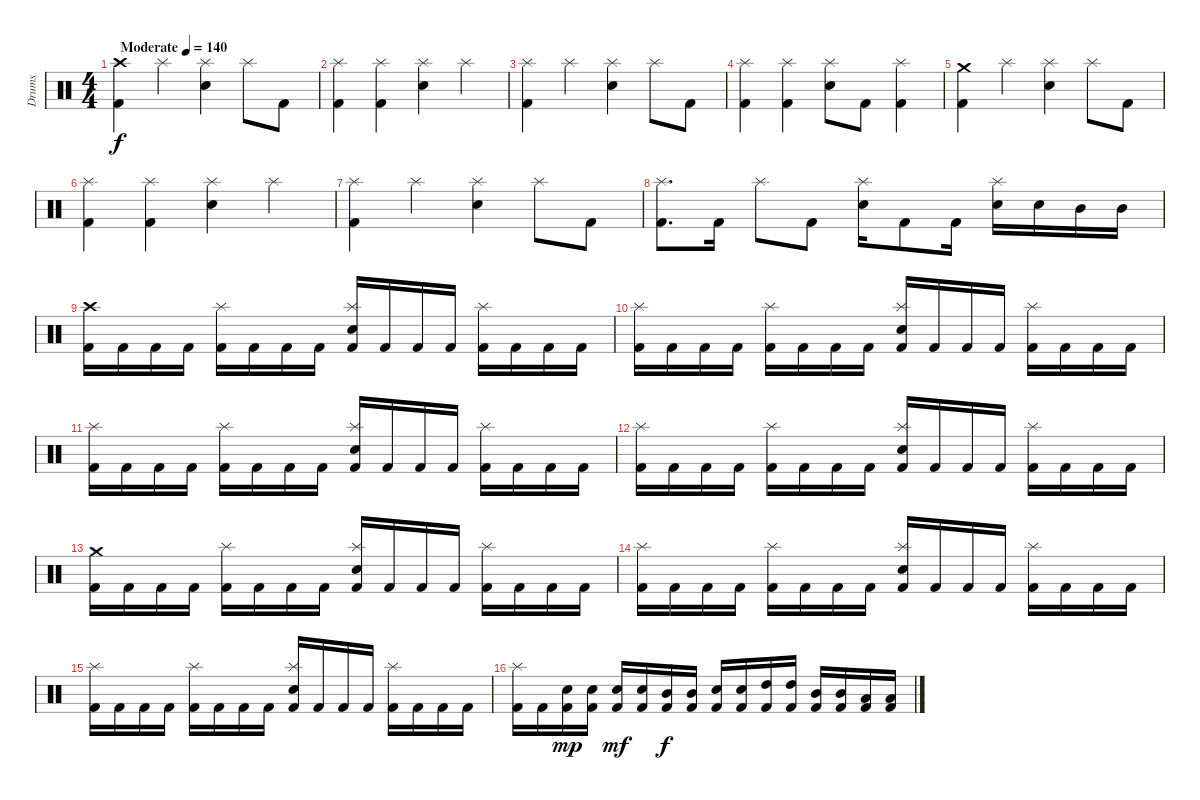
\track ("Drums" "Drums") {instrument percussion}
\staff {score}
\articulation defaults
\ts (4 4)
\tempo (140 "Moderate")
\clef neutral
\ks c
("Crash high (hit)" "Kick (hit) 2").4{dy f} "Splash (hit)".4 ("Splash (hit)" "Snare (hit) 2").4 "Splash (hit)".8 "Kick (hit) 2".8 |
("Splash (hit)" "Kick (hit) 2").4 ("Splash (hit)" "Kick (hit) 2").4 ("Splash (hit)" "Snare (hit) 2").4 "Splash (hit)".4 |
("Splash (hit)" "Kick (hit) 2").4 "Splash (hit)".4 ("Splash (hit)" "Snare (hit) 2").4 "Splash (hit)".8 "Kick (hit) 2".8 |
("Splash (hit)" "Kick (hit) 2").4 ("Splash (hit)" "Kick (hit) 2").4 ("Splash (hit)" "Snare (hit) 2").8 "Kick (hit) 2".8 ("Splash (hit)" "Kick (hit) 2").4 |
("Crash medium (hit)" "Kick (hit) 2").4 "Splash (hit)".4 ("Splash (hit)" "Snare (hit) 2").4 "Splash (hit)".8 "Kick (hit) 2".8 |
("Splash (hit)" "Kick (hit) 2").4 ("Splash (hit)" "Kick (hit) 2").4 ("Splash (hit)" "Snare (hit) 2").4 "Splash (hit)".4 |
("Splash (hit)" "Kick (hit) 2").4 "Splash (hit)".4 ("Splash (hit)" "Snare (hit) 2").4 "Splash (hit)".8 "Kick (hit) 2".8 |
("Splash (hit)" "Kick (hit) 2").8{d} "Kick (hit) 2".16 "Splash (hit)".8 "Kick (hit) 2".8 ("Splash (hit)" "Snare (hit) 2").16 "Kick (hit) 2".8 "Kick (hit) 2".16 ("Splash (hit)" "Snare (hit) 2").16 "Snare (hit) 2".16 "Mid Tom (hit)".16 "Mid Tom (hit)".16 |
("Crash high (hit)" "Kick (hit) 2").16 "Kick (hit) 2".16 "Kick (hit) 2".16 "Kick (hit) 2".16 ("Splash (hit)" "Kick (hit) 2").16 "Kick (hit) 2".16 "Kick (hit) 2".16 "Kick (hit) 2".16 ("Splash (hit)" "Snare (hit) 2" "Kick (hit) 2").16 "Kick (hit) 2".16 "Kick (hit) 2".16 "Kick (hit) 2".16 ("Splash (hit)" "Kick (hit) 2").16 "Kick (hit) 2".16 "Kick (hit) 2".16 "Kick (hit) 2".16 |
("Splash (hit)" "Kick (hit) 2").16 "Kick (hit) 2".16 "Kick (hit) 2".16 "Kick (hit) 2".16 ("Splash (hit)" "Kick (hit) 2").16 "Kick (hit) 2".16 "Kick (hit) 2".16 "Kick (hit) 2".16 ("Splash (hit)" "Snare (hit) 2" "Kick (hit) 2").16 "Kick (hit) 2".16 "Kick (hit) 2".16 "Kick (hit) 2".16 ("Splash (hit)" "Kick (hit) 2").16 "Kick (hit) 2".16 "Kick (hit) 2".16 "Kick (hit) 2".16 |
("Splash (hit)" "Kick (hit) 2").16 "Kick (hit) 2".16 "Kick (hit) 2".16 "Kick (hit) 2".16 ("Splash (hit)" "Kick (hit) 2").16 "Kick (hit) 2".16 "Kick (hit) 2".16 "Kick (hit) 2".16 ("Splash (hit)" "Snare (hit) 2" "Kick (hit) 2").16 "Kick (hit) 2".16 "Kick (hit) 2".16 "Kick (hit) 2".16 ("Splash (hit)" "Kick (hit) 2").16 "Kick (hit) 2".16 "Kick (hit) 2".16 "Kick (hit) 2".16 |
("Splash (hit)" "Kick (hit) 2").16 "Kick (hit) 2".16 "Kick (hit) 2".16 "Kick (hit) 2".16 ("Splash (hit)" "Kick (hit) 2").16 "Kick (hit) 2".16 "Kick (hit) 2".16 "Kick (hit) 2".16 ("Splash (hit)" "Snare (hit) 2" "Kick (hit) 2").16 "Kick (hit) 2".16 "Kick (hit) 2".16 "Kick (hit) 2".16 ("Splash (hit)" "Kick (hit) 2").16 "Kick (hit) 2".16 "Kick (hit) 2".16 "Kick (hit) 2".16 |
("Crash medium (hit)" "Kick (hit) 2").16 "Kick (hit) 2".16 "Kick (hit) 2".16 "Kick (hit) 2".16 ("Splash (hit)" "Kick (hit) 2").16 "Kick (hit) 2".16 "Kick (hit) 2".16 "Kick (hit) 2".16 ("Splash (hit)" "Snare (hit) 2" "Kick (hit) 2").16 "Kick (hit) 2".16 "Kick (hit) 2".16 "Kick (hit) 2".16 ("Splash (hit)" "Kick (hit) 2").16 "Kick (hit) 2".16 "Kick (hit) 2".16 "Kick (hit) 2".16 |
("Splash (hit)" "Kick (hit) 2").16 "Kick (hit) 2".16 "Kick (hit) 2".16 "Kick (hit) 2".16 ("Splash (hit)" "Kick (hit) 2").16 "Kick (hit) 2".16 "Kick (hit) 2".16 "Kick (hit) 2".16 ("Splash (hit)" "Snare (hit) 2" "Kick (hit) 2").16 "Kick (hit) 2".16 "Kick (hit) 2".16 "Kick (hit) 2".16 ("Splash (hit)" "Kick (hit) 2").16 "Kick (hit) 2".16 "Kick (hit) 2".16 "Kick (hit) 2".16 |
("Splash (hit)" "Kick (hit) 2").16 "Kick (hit) 2".16 "Kick (hit) 2".16 "Kick (hit) 2".16 ("Splash (hit)" "Kick (hit) 2").16 "Kick (hit) 2".16 "Kick (hit) 2".16 "Kick (hit) 2".16 ("Splash (hit)" "Snare (hit) 2" "Kick (hit) 2").16 "Kick (hit) 2".16 "Kick (hit) 2".16 "Kick (hit) 2".16 ("Splash (hit)" "Kick (hit) 2").16 "Kick (hit) 2".16 "Kick (hit) 2".16 "Kick (hit) 2".16 |
("Splash (hit)" "Kick (hit) 2").16 "Kick (hit) 2".16 ("Snare (hit) 2" "Kick (hit) 2").16{dy mp} ("Snare (hit) 2" "Kick (hit) 2").16 ("Snare (hit) 2" "Kick (hit) 2").16{dy mf} ("Snare (hit) 2" "Kick (hit) 2").16 ("Mid Tom (hit)" "Kick (hit) 2").16{dy f} ("Mid Tom (hit)" "Kick (hit) 2").16 ("Snare (hit) 2" "Kick (hit) 2").16 ("Snare (hit) 2" "Kick (hit) 2").16 ("High Tom (hit)" "Kick (hit) 2").16 ("High Tom (hit)" "Kick (hit) 2").16 ("Mid Tom (hit)" "Kick (hit) 2").16 ("Mid Tom (hit)" "Kick (hit) 2").16 ("Low Tom (hit)" "Kick (hit) 2").16 ("Low Tom (hit)" "Kick (hit) 2").16
